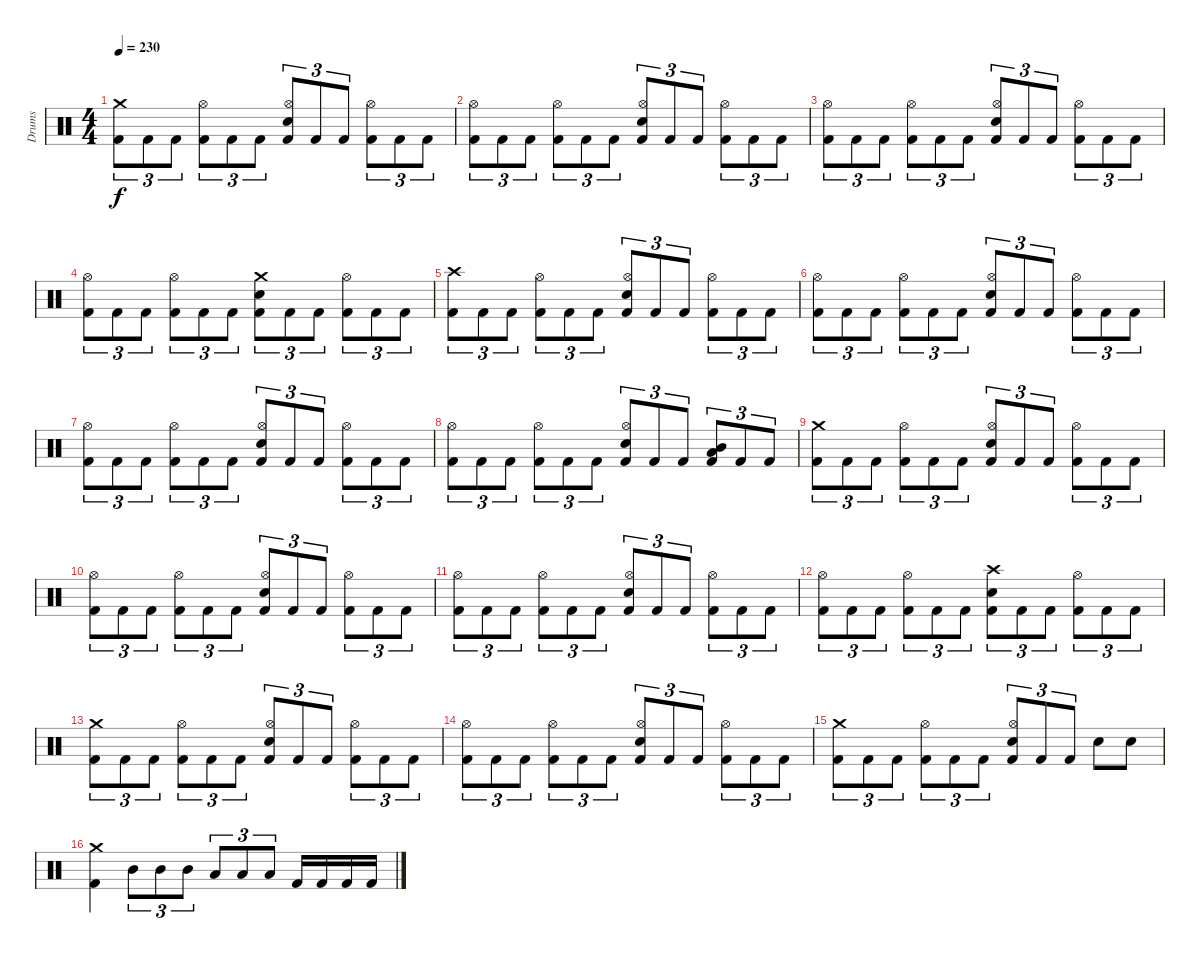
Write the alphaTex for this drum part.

\track ("Drums" "Drums") {instrument percussion}
\staff {score}
\articulation defaults
\ts (4 4)
\tempo 230
\clef neutral
\ks c
("Crash medium (hit)" "Kick (hit) 2").8{tu (3 2) dy f} "Kick (hit) 2".8{tu (3 2)} "Kick (hit) 2".8{tu (3 2)} ("Hi-Hat (open)" "Kick (hit) 2").8{tu (3 2)} "Kick (hit) 2".8{tu (3 2)} "Kick (hit) 2".8{tu (3 2)} ("Hi-Hat (open)" "Electric Snare (hit)" "Kick (hit) 2").8{tu (3 2)} "Kick (hit) 2".8{tu (3 2)} "Kick (hit) 2".8{tu (3 2)} ("Hi-Hat (open)" "Kick (hit) 2").8{tu (3 2)} "Kick (hit) 2".8{tu (3 2)} "Kick (hit) 2".8{tu (3 2)} |
("Hi-Hat (open)" "Kick (hit) 2").8{tu (3 2)} "Kick (hit) 2".8{tu (3 2)} "Kick (hit) 2".8{tu (3 2)} ("Hi-Hat (open)" "Kick (hit) 2").8{tu (3 2)} "Kick (hit) 2".8{tu (3 2)} "Kick (hit) 2".8{tu (3 2)} ("Hi-Hat (open)" "Electric Snare (hit)" "Kick (hit) 2").8{tu (3 2)} "Kick (hit) 2".8{tu (3 2)} "Kick (hit) 2".8{tu (3 2)} ("Hi-Hat (open)" "Kick (hit) 2").8{tu (3 2)} "Kick (hit) 2".8{tu (3 2)} "Kick (hit) 2".8{tu (3 2)} |
("Hi-Hat (open)" "Kick (hit) 2").8{tu (3 2)} "Kick (hit) 2".8{tu (3 2)} "Kick (hit) 2".8{tu (3 2)} ("Hi-Hat (open)" "Kick (hit) 2").8{tu (3 2)} "Kick (hit) 2".8{tu (3 2)} "Kick (hit) 2".8{tu (3 2)} ("Hi-Hat (open)" "Electric Snare (hit)" "Kick (hit) 2").8{tu (3 2)} "Kick (hit) 2".8{tu (3 2)} "Kick (hit) 2".8{tu (3 2)} ("Hi-Hat (open)" "Kick (hit) 2").8{tu (3 2)} "Kick (hit) 2".8{tu (3 2)} "Kick (hit) 2".8{tu (3 2)} |
("Hi-Hat (open)" "Kick (hit) 2").8{tu (3 2)} "Kick (hit) 2".8{tu (3 2)} "Kick (hit) 2".8{tu (3 2)} ("Hi-Hat (open)" "Kick (hit) 2").8{tu (3 2)} "Kick (hit) 2".8{tu (3 2)} "Kick (hit) 2".8{tu (3 2)} ("Crash medium (hit)" "Electric Snare (hit)" "Kick (hit) 2").8{tu (3 2)} "Kick (hit) 2".8{tu (3 2)} "Kick (hit) 2".8{tu (3 2)} ("Hi-Hat (open)" "Kick (hit) 2").8{tu (3 2)} "Kick (hit) 2".8{tu (3 2)} "Kick (hit) 2".8{tu (3 2)} |
("Crash high (hit)" "Kick (hit) 2").8{tu (3 2)} "Kick (hit) 2".8{tu (3 2)} "Kick (hit) 2".8{tu (3 2)} ("Hi-Hat (open)" "Kick (hit) 2").8{tu (3 2)} "Kick (hit) 2".8{tu (3 2)} "Kick (hit) 2".8{tu (3 2)} ("Hi-Hat (open)" "Electric Snare (hit)" "Kick (hit) 2").8{tu (3 2)} "Kick (hit) 2".8{tu (3 2)} "Kick (hit) 2".8{tu (3 2)} ("Hi-Hat (open)" "Kick (hit) 2").8{tu (3 2)} "Kick (hit) 2".8{tu (3 2)} "Kick (hit) 2".8{tu (3 2)} |
("Hi-Hat (open)" "Kick (hit) 2").8{tu (3 2)} "Kick (hit) 2".8{tu (3 2)} "Kick (hit) 2".8{tu (3 2)} ("Hi-Hat (open)" "Kick (hit) 2").8{tu (3 2)} "Kick (hit) 2".8{tu (3 2)} "Kick (hit) 2".8{tu (3 2)} ("Hi-Hat (open)" "Electric Snare (hit)" "Kick (hit) 2").8{tu (3 2)} "Kick (hit) 2".8{tu (3 2)} "Kick (hit) 2".8{tu (3 2)} ("Hi-Hat (open)" "Kick (hit) 2").8{tu (3 2)} "Kick (hit) 2".8{tu (3 2)} "Kick (hit) 2".8{tu (3 2)} |
("Hi-Hat (open)" "Kick (hit) 2").8{tu (3 2)} "Kick (hit) 2".8{tu (3 2)} "Kick (hit) 2".8{tu (3 2)} ("Hi-Hat (open)" "Kick (hit) 2").8{tu (3 2)} "Kick (hit) 2".8{tu (3 2)} "Kick (hit) 2".8{tu (3 2)} ("Hi-Hat (open)" "Electric Snare (hit)" "Kick (hit) 2").8{tu (3 2)} "Kick (hit) 2".8{tu (3 2)} "Kick (hit) 2".8{tu (3 2)} ("Hi-Hat (open)" "Kick (hit) 2").8{tu (3 2)} "Kick (hit) 2".8{tu (3 2)} "Kick (hit) 2".8{tu (3 2)} |
("Hi-Hat (open)" "Kick (hit) 2").8{tu (3 2)} "Kick (hit) 2".8{tu (3 2)} "Kick (hit) 2".8{tu (3 2)} ("Hi-Hat (open)" "Kick (hit) 2").8{tu (3 2)} "Kick (hit) 2".8{tu (3 2)} "Kick (hit) 2".8{tu (3 2)} ("Hi-Hat (open)" "Electric Snare (hit)" "Kick (hit) 2").8{tu (3 2)} "Kick (hit) 2".8{tu (3 2)} "Kick (hit) 2".8{tu (3 2)} ("Mid Tom (hit)" "Low Tom (hit)" "Kick (hit) 2").8{tu (3 2)} "Kick (hit) 2".8{tu (3 2)} "Kick (hit) 2".8{tu (3 2)} |
("Crash medium (hit)" "Kick (hit) 2").8{tu (3 2)} "Kick (hit) 2".8{tu (3 2)} "Kick (hit) 2".8{tu (3 2)} ("Hi-Hat (open)" "Kick (hit) 2").8{tu (3 2)} "Kick (hit) 2".8{tu (3 2)} "Kick (hit) 2".8{tu (3 2)} ("Hi-Hat (open)" "Electric Snare (hit)" "Kick (hit) 2").8{tu (3 2)} "Kick (hit) 2".8{tu (3 2)} "Kick (hit) 2".8{tu (3 2)} ("Hi-Hat (open)" "Kick (hit) 2").8{tu (3 2)} "Kick (hit) 2".8{tu (3 2)} "Kick (hit) 2".8{tu (3 2)} |
("Hi-Hat (open)" "Kick (hit) 2").8{tu (3 2)} "Kick (hit) 2".8{tu (3 2)} "Kick (hit) 2".8{tu (3 2)} ("Hi-Hat (open)" "Kick (hit) 2").8{tu (3 2)} "Kick (hit) 2".8{tu (3 2)} "Kick (hit) 2".8{tu (3 2)} ("Hi-Hat (open)" "Electric Snare (hit)" "Kick (hit) 2").8{tu (3 2)} "Kick (hit) 2".8{tu (3 2)} "Kick (hit) 2".8{tu (3 2)} ("Hi-Hat (open)" "Kick (hit) 2").8{tu (3 2)} "Kick (hit) 2".8{tu (3 2)} "Kick (hit) 2".8{tu (3 2)} |
("Hi-Hat (open)" "Kick (hit) 2").8{tu (3 2)} "Kick (hit) 2".8{tu (3 2)} "Kick (hit) 2".8{tu (3 2)} ("Hi-Hat (open)" "Kick (hit) 2").8{tu (3 2)} "Kick (hit) 2".8{tu (3 2)} "Kick (hit) 2".8{tu (3 2)} ("Hi-Hat (open)" "Electric Snare (hit)" "Kick (hit) 2").8{tu (3 2)} "Kick (hit) 2".8{tu (3 2)} "Kick (hit) 2".8{tu (3 2)} ("Hi-Hat (open)" "Kick (hit) 2").8{tu (3 2)} "Kick (hit) 2".8{tu (3 2)} "Kick (hit) 2".8{tu (3 2)} |
("Hi-Hat (open)" "Kick (hit) 2").8{tu (3 2)} "Kick (hit) 2".8{tu (3 2)} "Kick (hit) 2".8{tu (3 2)} ("Hi-Hat (open)" "Kick (hit) 2").8{tu (3 2)} "Kick (hit) 2".8{tu (3 2)} "Kick (hit) 2".8{tu (3 2)} ("Crash high (hit)" "Electric Snare (hit)" "Kick (hit) 2").8{tu (3 2)} "Kick (hit) 2".8{tu (3 2)} "Kick (hit) 2".8{tu (3 2)} ("Hi-Hat (open)" "Kick (hit) 2").8{tu (3 2)} "Kick (hit) 2".8{tu (3 2)} "Kick (hit) 2".8{tu (3 2)} |
("Crash medium (hit)" "Kick (hit) 2").8{tu (3 2)} "Kick (hit) 2".8{tu (3 2)} "Kick (hit) 2".8{tu (3 2)} ("Hi-Hat (open)" "Kick (hit) 2").8{tu (3 2)} "Kick (hit) 2".8{tu (3 2)} "Kick (hit) 2".8{tu (3 2)} ("Hi-Hat (open)" "Electric Snare (hit)" "Kick (hit) 2").8{tu (3 2)} "Kick (hit) 2".8{tu (3 2)} "Kick (hit) 2".8{tu (3 2)} ("Hi-Hat (open)" "Kick (hit) 2").8{tu (3 2)} "Kick (hit) 2".8{tu (3 2)} "Kick (hit) 2".8{tu (3 2)} |
("Hi-Hat (open)" "Kick (hit) 2").8{tu (3 2)} "Kick (hit) 2".8{tu (3 2)} "Kick (hit) 2".8{tu (3 2)} ("Hi-Hat (open)" "Kick (hit) 2").8{tu (3 2)} "Kick (hit) 2".8{tu (3 2)} "Kick (hit) 2".8{tu (3 2)} ("Hi-Hat (open)" "Electric Snare (hit)" "Kick (hit) 2").8{tu (3 2)} "Kick (hit) 2".8{tu (3 2)} "Kick (hit) 2".8{tu (3 2)} ("Hi-Hat (open)" "Kick (hit) 2").8{tu (3 2)} "Kick (hit) 2".8{tu (3 2)} "Kick (hit) 2".8{tu (3 2)} |
("Crash medium (hit)" "Kick (hit) 2").8{tu (3 2)} "Kick (hit) 2".8{tu (3 2)} "Kick (hit) 2".8{tu (3 2)} ("Hi-Hat (open)" "Kick (hit) 2").8{tu (3 2)} "Kick (hit) 2".8{tu (3 2)} "Kick (hit) 2".8{tu (3 2)} ("Hi-Hat (open)" "Electric Snare (hit)" "Kick (hit) 2").8{tu (3 2)} "Kick (hit) 2".8{tu (3 2)} "Kick (hit) 2".8{tu (3 2)} "Electric Snare (hit)".8 "Electric Snare (hit)".8 |
("Crash medium (hit)" "Kick (hit) 2").4 "Mid Tom (hit)".8{tu (3 2)} "Mid Tom (hit)".8{tu (3 2)} "Mid Tom (hit)".8{tu (3 2)} "Low Tom (hit)".8{tu (3 2)} "Low Tom (hit)".8{tu (3 2)} "Low Tom (hit)".8{tu (3 2)} "Kick (hit) 2".16 "Kick (hit) 2".16 "Kick (hit) 2".16 "Kick (hit) 2".16
